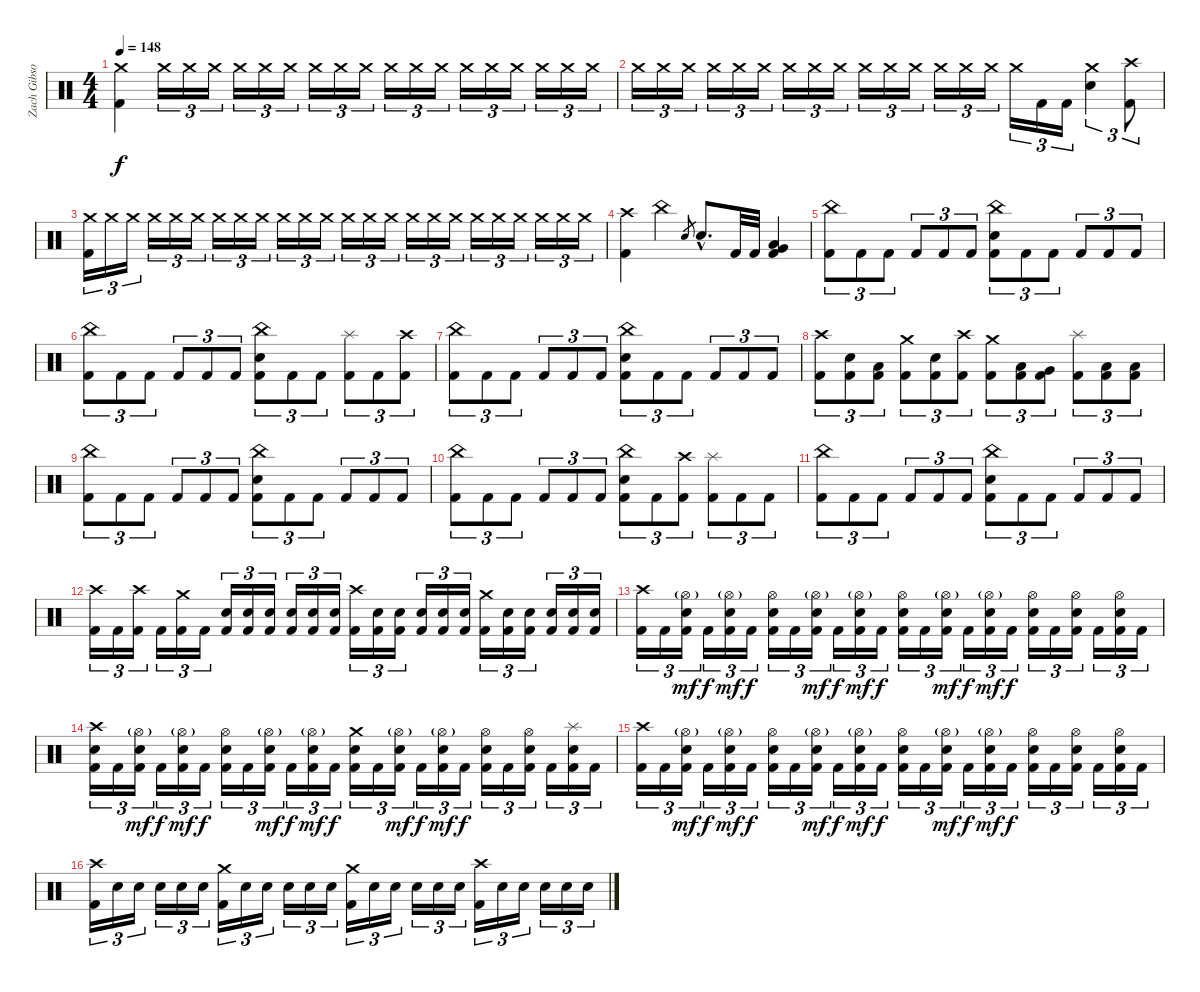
\track ("Zach Gibson (Ex-Drums)" "Zach Gibso") {instrument percussion}
\staff {score}
\articulation defaults
\ts (4 4)
\tempo 148
\clef neutral
\ks c
("Crash medium (hit)" "Kick (hit) 2").4{dy f} "Crash medium (hit)".16{tu (3 2)} "Crash medium (hit)".16{tu (3 2)} "Crash medium (hit)".16{tu (3 2)} "Crash medium (hit)".16{tu (3 2)} "Crash medium (hit)".16{tu (3 2)} "Crash medium (hit)".16{tu (3 2)} "Crash medium (hit)".16{tu (3 2)} "Crash medium (hit)".16{tu (3 2)} "Crash medium (hit)".16{tu (3 2)} "Crash medium (hit)".16{tu (3 2)} "Crash medium (hit)".16{tu (3 2)} "Crash medium (hit)".16{tu (3 2)} "Crash medium (hit)".16{tu (3 2)} "Crash medium (hit)".16{tu (3 2)} "Crash medium (hit)".16{tu (3 2)} "Crash medium (hit)".16{tu (3 2)} "Crash medium (hit)".16{tu (3 2)} "Crash medium (hit)".16{tu (3 2)} |
"Crash medium (hit)".16{tu (3 2)} "Crash medium (hit)".16{tu (3 2)} "Crash medium (hit)".16{tu (3 2)} "Crash medium (hit)".16{tu (3 2)} "Crash medium (hit)".16{tu (3 2)} "Crash medium (hit)".16{tu (3 2)} "Crash medium (hit)".16{tu (3 2)} "Crash medium (hit)".16{tu (3 2)} "Crash medium (hit)".16{tu (3 2)} "Crash medium (hit)".16{tu (3 2)} "Crash medium (hit)".16{tu (3 2)} "Crash medium (hit)".16{tu (3 2)} "Crash medium (hit)".16{tu (3 2)} "Crash medium (hit)".16{tu (3 2)} "Crash medium (hit)".16{tu (3 2)} "Crash medium (hit)".16{tu (3 2)} "Kick (hit) 2".16{tu (3 2)} "Kick (hit) 2".16{tu (3 2)} ("Crash medium (hit)" "Snare (hit) 2").4{tu (3 2)} ("Crash high (hit)" "Kick (hit) 2").8{tu (3 2)} |
("Crash medium (hit)" "Kick (hit) 2").16{tu (3 2)} "Crash medium (hit)".16{tu (3 2)} "Crash medium (hit)".16{tu (3 2)} "Crash medium (hit)".16{tu (3 2)} "Crash medium (hit)".16{tu (3 2)} "Crash medium (hit)".16{tu (3 2)} "Crash medium (hit)".16{tu (3 2)} "Crash medium (hit)".16{tu (3 2)} "Crash medium (hit)".16{tu (3 2)} "Crash medium (hit)".16{tu (3 2)} "Crash medium (hit)".16{tu (3 2)} "Crash medium (hit)".16{tu (3 2)} "Crash medium (hit)".16{tu (3 2)} "Crash medium (hit)".16{tu (3 2)} "Crash medium (hit)".16{tu (3 2)} "Crash medium (hit)".16{tu (3 2)} "Crash medium (hit)".16{tu (3 2)} "Crash medium (hit)".16{tu (3 2)} "Crash medium (hit)".16{tu (3 2)} "Crash medium (hit)".16{tu (3 2)} "Crash medium (hit)".16{tu (3 2)} "Crash medium (hit)".16{tu (3 2)} "Crash medium (hit)".16{tu (3 2)} "Crash medium (hit)".16{tu (3 2)} |
("Kick (hit) 2" "Crash high (hit)").4 "China (hit)".4 "Snare (hit) 2".8{gr} "Snare (hit) 2"{hac}.8{d} "Kick (hit) 2".32 "Kick (hit) 2".32 ("Kick (hit) 2" "Low Floor Tom (hit)" "Very Low Tom (hit)").4 |
("China (hit)" "Kick (hit) 2").8{tu (3 2)} "Kick (hit) 2".8{tu (3 2)} "Kick (hit) 2".8{tu (3 2)} "Kick (hit) 2".8{tu (3 2)} "Kick (hit) 2".8{tu (3 2)} "Kick (hit) 2".8{tu (3 2)} ("China (hit)" "Snare (hit) 2" "Kick (hit) 2").8{tu (3 2)} "Kick (hit) 2".8{tu (3 2)} "Kick (hit) 2".8{tu (3 2)} "Kick (hit) 2".8{tu (3 2)} "Kick (hit) 2".8{tu (3 2)} "Kick (hit) 2".8{tu (3 2)} |
("China (hit)" "Kick (hit) 2").8{tu (3 2)} "Kick (hit) 2".8{tu (3 2)} "Kick (hit) 2".8{tu (3 2)} "Kick (hit) 2".8{tu (3 2)} "Kick (hit) 2".8{tu (3 2)} "Kick (hit) 2".8{tu (3 2)} ("China (hit)" "Snare (hit) 2" "Kick (hit) 2").8{tu (3 2)} "Kick (hit) 2".8{tu (3 2)} "Kick (hit) 2".8{tu (3 2)} ("Splash (hit)" "Kick (hit) 2").8{tu (3 2)} "Kick (hit) 2".8{tu (3 2)} ("Crash high (hit)" "Kick (hit) 2").8{tu (3 2)} |
("China (hit)" "Kick (hit) 2").8{tu (3 2)} "Kick (hit) 2".8{tu (3 2)} "Kick (hit) 2".8{tu (3 2)} "Kick (hit) 2".8{tu (3 2)} "Kick (hit) 2".8{tu (3 2)} "Kick (hit) 2".8{tu (3 2)} ("China (hit)" "Snare (hit) 2" "Kick (hit) 2").8{tu (3 2)} "Kick (hit) 2".8{tu (3 2)} "Kick (hit) 2".8{tu (3 2)} "Kick (hit) 2".8{tu (3 2)} "Kick (hit) 2".8{tu (3 2)} "Kick (hit) 2".8{tu (3 2)} |
("Crash high (hit)" "Kick (hit) 2").8{tu (3 2)} ("Snare (hit) 2" "Kick (hit) 2").8{tu (3 2)} ("Low Tom (hit)" "Kick (hit) 2").8{tu (3 2)} ("Crash medium (hit)" "Kick (hit) 2").8{tu (3 2)} ("Snare (hit) 2" "Kick (hit) 2").8{tu (3 2)} ("Crash high (hit)" "Kick (hit) 2").8{tu (3 2)} ("Crash medium (hit)" "Kick (hit) 2").8{tu (3 2)} ("Low Tom (hit)" "Kick (hit) 2").8{tu (3 2)} ("Very Low Tom (hit)" "Kick (hit) 2").8{tu (3 2)} ("Splash (hit)" "Kick (hit) 2").8{tu (3 2)} ("Low Floor Tom (hit)" "Kick (hit) 2").8{tu (3 2)} ("Low Floor Tom (hit)" "Kick (hit) 2").8{tu (3 2)} |
("China (hit)" "Kick (hit) 2").8{tu (3 2)} "Kick (hit) 2".8{tu (3 2)} "Kick (hit) 2".8{tu (3 2)} "Kick (hit) 2".8{tu (3 2)} "Kick (hit) 2".8{tu (3 2)} "Kick (hit) 2".8{tu (3 2)} ("China (hit)" "Snare (hit) 2" "Kick (hit) 2").8{tu (3 2)} "Kick (hit) 2".8{tu (3 2)} "Kick (hit) 2".8{tu (3 2)} "Kick (hit) 2".8{tu (3 2)} "Kick (hit) 2".8{tu (3 2)} "Kick (hit) 2".8{tu (3 2)} |
("China (hit)" "Kick (hit) 2").8{tu (3 2)} "Kick (hit) 2".8{tu (3 2)} "Kick (hit) 2".8{tu (3 2)} "Kick (hit) 2".8{tu (3 2)} "Kick (hit) 2".8{tu (3 2)} "Kick (hit) 2".8{tu (3 2)} ("China (hit)" "Snare (hit) 2" "Kick (hit) 2").8{tu (3 2)} "Kick (hit) 2".8{tu (3 2)} ("Crash high (hit)" "Kick (hit) 2").8{tu (3 2)} ("Splash (hit)" "Kick (hit) 2").8{tu (3 2)} "Kick (hit) 2".8{tu (3 2)} "Kick (hit) 2".8{tu (3 2)} |
("China (hit)" "Kick (hit) 2").8{tu (3 2)} "Kick (hit) 2".8{tu (3 2)} "Kick (hit) 2".8{tu (3 2)} "Kick (hit) 2".8{tu (3 2)} "Kick (hit) 2".8{tu (3 2)} "Kick (hit) 2".8{tu (3 2)} ("China (hit)" "Snare (hit) 2" "Kick (hit) 2").8{tu (3 2)} "Kick (hit) 2".8{tu (3 2)} "Kick (hit) 2".8{tu (3 2)} "Kick (hit) 2".8{tu (3 2)} "Kick (hit) 2".8{tu (3 2)} "Kick (hit) 2".8{tu (3 2)} |
("Crash high (hit)" "Kick (hit) 2").16{tu (3 2)} "Kick (hit) 2".16{tu (3 2)} ("Crash high (hit)" "Kick (hit) 2").16{tu (3 2)} "Kick (hit) 2".16{tu (3 2)} ("Crash medium (hit)" "Kick (hit) 2").16{tu (3 2)} "Kick (hit) 2".16{tu (3 2)} ("Snare (hit) 2" "Kick (hit) 2").16{tu (3 2)} ("Snare (hit) 2" "Kick (hit) 2").16{tu (3 2)} ("Snare (hit) 2" "Kick (hit) 2").16{tu (3 2)} ("Snare (hit) 2" "Kick (hit) 2").16{tu (3 2)} ("Snare (hit) 2" "Kick (hit) 2").16{tu (3 2)} ("Snare (hit) 2" "Kick (hit) 2").16{tu (3 2)} ("Crash high (hit)" "Kick (hit) 2").16{tu (3 2)} ("Snare (hit) 2" "Kick (hit) 2").16{tu (3 2)} ("Snare (hit) 2" "Kick (hit) 2").16{tu (3 2)} ("Snare (hit) 2" "Kick (hit) 2").16{tu (3 2)} ("Snare (hit) 2" "Kick (hit) 2").16{tu (3 2)} ("Snare (hit) 2" "Kick (hit) 2").16{tu (3 2)} ("Crash medium (hit)" "Kick (hit) 2").16{tu (3 2)} ("Snare (hit) 2" "Kick (hit) 2").16{tu (3 2)} ("Snare (hit) 2" "Kick (hit) 2").16{tu (3 2)} ("Snare (hit) 2" "Kick (hit) 2").16{tu (3 2)} ("Snare (hit) 2" "Kick (hit) 2").16{tu (3 2)} ("Snare (hit) 2" "Kick (hit) 2").16{tu (3 2)} |
("Crash high (hit)" "Kick (hit) 2").16{tu (3 2)} "Kick (hit) 2".16{tu (3 2)} ("Hi-Hat (open)"{g} "Snare (hit) 2" "Kick (hit) 2").16{tu (3 2) dy mf} "Kick (hit) 2".16{tu (3 2) dy f} ("Hi-Hat (open)"{g} "Snare (hit) 2" "Kick (hit) 2").16{tu (3 2) dy mf} "Kick (hit) 2".16{tu (3 2) dy f} ("Hi-Hat (open)" "Snare (hit) 2" "Kick (hit) 2").16{tu (3 2)} "Kick (hit) 2".16{tu (3 2)} ("Hi-Hat (open)"{g} "Snare (hit) 2" "Kick (hit) 2").16{tu (3 2) dy mf} "Kick (hit) 2".16{tu (3 2) dy f} ("Hi-Hat (open)"{g} "Snare (hit) 2" "Kick (hit) 2").16{tu (3 2) dy mf} "Kick (hit) 2".16{tu (3 2) dy f} ("Hi-Hat (open)" "Snare (hit) 2" "Kick (hit) 2").16{tu (3 2)} "Kick (hit) 2".16{tu (3 2)} ("Hi-Hat (open)"{g} "Snare (hit) 2" "Kick (hit) 2").16{tu (3 2) dy mf} "Kick (hit) 2".16{tu (3 2) dy f} ("Hi-Hat (open)"{g} "Snare (hit) 2" "Kick (hit) 2").16{tu (3 2) dy mf} "Kick (hit) 2".16{tu (3 2) dy f} ("Hi-Hat (open)" "Snare (hit) 2" "Kick (hit) 2").16{tu (3 2)} "Kick (hit) 2".16{tu (3 2)} ("Hi-Hat (open)" "Snare (hit) 2" "Kick (hit) 2").16{tu (3 2)} "Kick (hit) 2".16{tu (3 2)} ("Hi-Hat (open)" "Snare (hit) 2" "Kick (hit) 2").16{tu (3 2)} "Kick (hit) 2".16{tu (3 2)} |
("Crash high (hit)" "Snare (hit) 2" "Kick (hit) 2").16{tu (3 2)} "Kick (hit) 2".16{tu (3 2)} ("Hi-Hat (open)"{g} "Snare (hit) 2" "Kick (hit) 2").16{tu (3 2) dy mf} "Kick (hit) 2".16{tu (3 2) dy f} ("Hi-Hat (open)"{g} "Snare (hit) 2" "Kick (hit) 2").16{tu (3 2) dy mf} "Kick (hit) 2".16{tu (3 2) dy f} ("Hi-Hat (open)" "Snare (hit) 2" "Kick (hit) 2").16{tu (3 2)} "Kick (hit) 2".16{tu (3 2)} ("Hi-Hat (open)"{g} "Snare (hit) 2" "Kick (hit) 2").16{tu (3 2) dy mf} "Kick (hit) 2".16{tu (3 2) dy f} ("Hi-Hat (open)"{g} "Snare (hit) 2" "Kick (hit) 2").16{tu (3 2) dy mf} "Kick (hit) 2".16{tu (3 2) dy f} ("Crash medium (hit)" "Snare (hit) 2" "Kick (hit) 2").16{tu (3 2)} "Kick (hit) 2".16{tu (3 2)} ("Hi-Hat (open)"{g} "Snare (hit) 2" "Kick (hit) 2").16{tu (3 2) dy mf} "Kick (hit) 2".16{tu (3 2) dy f} ("Hi-Hat (open)"{g} "Snare (hit) 2" "Kick (hit) 2").16{tu (3 2) dy mf} "Kick (hit) 2".16{tu (3 2) dy f} ("Hi-Hat (open)" "Snare (hit) 2" "Kick (hit) 2").16{tu (3 2)} "Kick (hit) 2".16{tu (3 2)} ("Hi-Hat (open)" "Snare (hit) 2" "Kick (hit) 2").16{tu (3 2)} "Kick (hit) 2".16{tu (3 2)} ("Splash (hit)" "Snare (hit) 2" "Kick (hit) 2").16{tu (3 2)} "Kick (hit) 2".16{tu (3 2)} |
("Crash high (hit)" "Kick (hit) 2").16{tu (3 2)} "Kick (hit) 2".16{tu (3 2)} ("Hi-Hat (open)"{g} "Snare (hit) 2" "Kick (hit) 2").16{tu (3 2) dy mf} "Kick (hit) 2".16{tu (3 2) dy f} ("Hi-Hat (open)"{g} "Snare (hit) 2" "Kick (hit) 2").16{tu (3 2) dy mf} "Kick (hit) 2".16{tu (3 2) dy f} ("Hi-Hat (open)" "Snare (hit) 2" "Kick (hit) 2").16{tu (3 2)} "Kick (hit) 2".16{tu (3 2)} ("Hi-Hat (open)"{g} "Snare (hit) 2" "Kick (hit) 2").16{tu (3 2) dy mf} "Kick (hit) 2".16{tu (3 2) dy f} ("Hi-Hat (open)"{g} "Snare (hit) 2" "Kick (hit) 2").16{tu (3 2) dy mf} "Kick (hit) 2".16{tu (3 2) dy f} ("Hi-Hat (open)" "Snare (hit) 2" "Kick (hit) 2").16{tu (3 2)} "Kick (hit) 2".16{tu (3 2)} ("Hi-Hat (open)"{g} "Snare (hit) 2" "Kick (hit) 2").16{tu (3 2) dy mf} "Kick (hit) 2".16{tu (3 2) dy f} ("Hi-Hat (open)"{g} "Snare (hit) 2" "Kick (hit) 2").16{tu (3 2) dy mf} "Kick (hit) 2".16{tu (3 2) dy f} ("Hi-Hat (open)" "Snare (hit) 2" "Kick (hit) 2").16{tu (3 2)} "Kick (hit) 2".16{tu (3 2)} ("Hi-Hat (open)" "Snare (hit) 2" "Kick (hit) 2").16{tu (3 2)} "Kick (hit) 2".16{tu (3 2)} ("Hi-Hat (open)" "Snare (hit) 2" "Kick (hit) 2").16{tu (3 2)} "Kick (hit) 2".16{tu (3 2)} |
("Crash high (hit)" "Kick (hit) 2").16{tu (3 2)} "Snare (hit) 2".16{tu (3 2)} "Snare (hit) 2".16{tu (3 2)} "Snare (hit) 2".16{tu (3 2)} "Snare (hit) 2".16{tu (3 2)} "Snare (hit) 2".16{tu (3 2)} ("Crash medium (hit)" "Kick (hit) 2").16{tu (3 2)} "Snare (hit) 2".16{tu (3 2)} "Snare (hit) 2".16{tu (3 2)} "Snare (hit) 2".16{tu (3 2)} "Snare (hit) 2".16{tu (3 2)} "Snare (hit) 2".16{tu (3 2)} ("Crash medium (hit)" "Kick (hit) 2").16{tu (3 2)} "Snare (hit) 2".16{tu (3 2)} "Snare (hit) 2".16{tu (3 2)} "Snare (hit) 2".16{tu (3 2)} "Snare (hit) 2".16{tu (3 2)} "Snare (hit) 2".16{tu (3 2)} ("Crash high (hit)" "Kick (hit) 2").16{tu (3 2)} "Snare (hit) 2".16{tu (3 2)} "Snare (hit) 2".16{tu (3 2)} "Snare (hit) 2".16{tu (3 2)} "Snare (hit) 2".16{tu (3 2)} "Snare (hit) 2".16{tu (3 2)}
